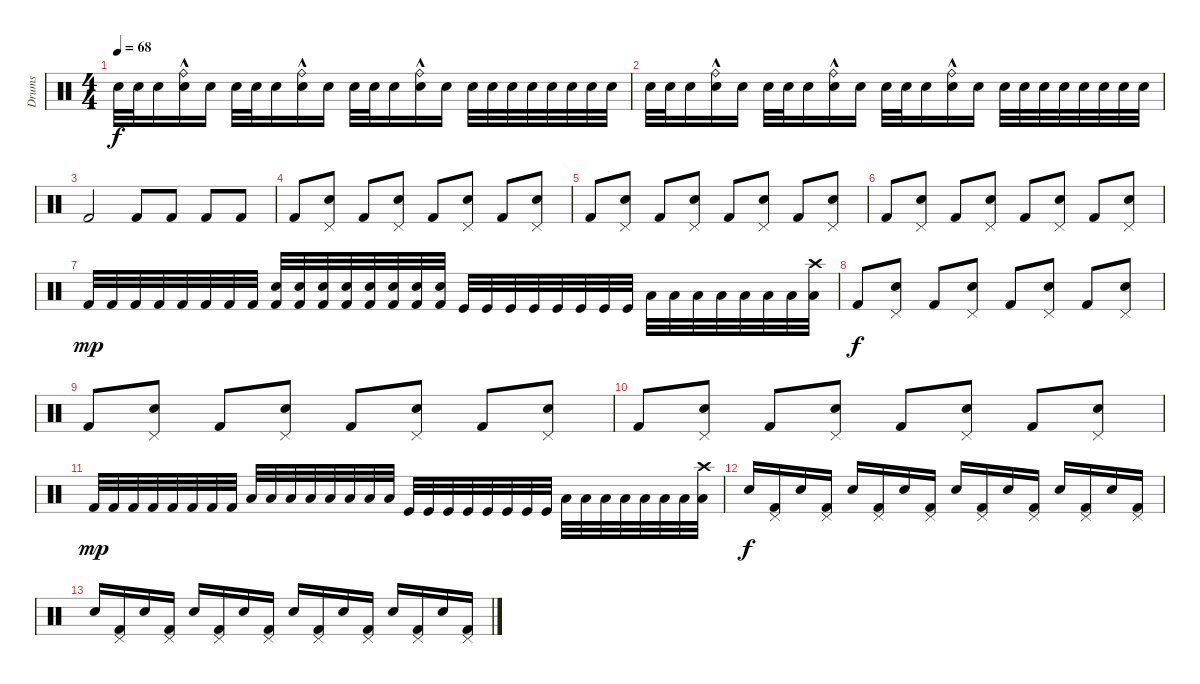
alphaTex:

\track ("Drums" "Drums") {instrument percussion}
\staff {score}
\articulation defaults
\ts (4 4)
\tempo 68
\clef neutral
\ks c "Electric Snare (hit)".32{dy f} "Electric Snare (hit)".32 "Electric Snare (hit)".16
("Electric Snare (hit)" "Ride (bell)"{hac}).16 "Electric Snare (hit)".16 "Electric Snare (hit)".32 "Electric Snare (hit)".32 "Electric Snare (hit)".16 ("Electric Snare (hit)" "Ride (bell)"{hac}).16 "Electric Snare (hit)".16 "Electric Snare (hit)".32 "Electric Snare (hit)".32 "Electric Snare (hit)".16 ("Electric Snare (hit)" "Ride (bell)"{hac}).16 "Electric Snare (hit)".16 "Electric Snare (hit)".32 "Electric Snare (hit)".32 "Electric Snare (hit)".32 "Electric Snare (hit)".32 "Electric Snare (hit)".32 "Electric Snare (hit)".32 "Electric Snare (hit)".32 "Electric Snare (hit)".32 |
"Electric Snare (hit)".32 "Electric Snare (hit)".32 "Electric Snare (hit)".16 ("Electric Snare (hit)" "Ride (bell)"{hac}).16 "Electric Snare (hit)".16 "Electric Snare (hit)".32 "Electric Snare (hit)".32 "Electric Snare (hit)".16 ("Electric Snare (hit)" "Ride (bell)"{hac}).16 "Electric Snare (hit)".16 "Electric Snare (hit)".32 "Electric Snare (hit)".32 "Electric Snare (hit)".16 ("Electric Snare (hit)" "Ride (bell)"{hac}).16 "Electric Snare (hit)".16 "Electric Snare (hit)".32 "Electric Snare (hit)".32 "Electric Snare (hit)".32 "Electric Snare (hit)".32 "Electric Snare (hit)".32 "Electric Snare (hit)".32 "Electric Snare (hit)".32 "Electric Snare (hit)".32 |
"Kick (hit) 2".2 "Kick (hit) 2".8 "Kick (hit) 2".8 "Kick (hit) 2".8 "Kick (hit) 2".8 |
"Kick (hit) 2".8 ("Snare (hit) 2" "Pedal Hi-Hat (hit)").8 "Kick (hit) 2".8 ("Snare (hit) 2" "Pedal Hi-Hat (hit)").8 "Kick (hit) 2".8 ("Snare (hit) 2" "Pedal Hi-Hat (hit)").8 "Kick (hit) 2".8 ("Snare (hit) 2" "Pedal Hi-Hat (hit)").8 |
"Kick (hit) 2".8 ("Snare (hit) 2" "Pedal Hi-Hat (hit)").8 "Kick (hit) 2".8 ("Snare (hit) 2" "Pedal Hi-Hat (hit)").8 "Kick (hit) 2".8 ("Snare (hit) 2" "Pedal Hi-Hat (hit)").8 "Kick (hit) 2".8 ("Snare (hit) 2" "Pedal Hi-Hat (hit)").8 |
"Kick (hit) 2".8 ("Snare (hit) 2" "Pedal Hi-Hat (hit)").8 "Kick (hit) 2".8 ("Snare (hit) 2" "Pedal Hi-Hat (hit)").8 "Kick (hit) 2".8 ("Snare (hit) 2" "Pedal Hi-Hat (hit)").8 "Kick (hit) 2".8 ("Snare (hit) 2" "Pedal Hi-Hat (hit)").8 |
"Kick (hit) 2".32{dy mp} "Kick (hit) 2".32 "Kick (hit) 2".32 "Kick (hit) 2".32 "Kick (hit) 2".32 "Kick (hit) 2".32 "Kick (hit) 2".32 "Kick (hit) 2".32 ("Snare (hit) 2" "Kick (hit) 2").32 ("Snare (hit) 2" "Kick (hit) 2").32 ("Snare (hit) 2" "Kick (hit) 2").32 ("Snare (hit) 2" "Kick (hit) 2").32 ("Snare (hit) 2" "Kick (hit) 2").32 ("Snare (hit) 2" "Kick (hit) 2").32 ("Snare (hit) 2" "Kick (hit) 2").32 ("Snare (hit) 2" "Kick (hit) 2").32 "Kick (hit)".32 "Kick (hit)".32 "Kick (hit)".32 "Kick (hit)".32 "Kick (hit)".32 "Kick (hit)".32 "Kick (hit)".32 "Kick (hit)".32 "Low Tom (hit)".32 "Low Tom (hit)".32 "Low Tom (hit)".32 "Low Tom (hit)".32 "Low Tom (hit)".32 "Low Tom (hit)".32 "Low Tom (hit)".32 ("Low Tom (hit)" "Crash high (hit)").32 |
"Kick (hit) 2".8{dy f} ("Snare (hit) 2" "Pedal Hi-Hat (hit)").8 "Kick (hit) 2".8 ("Snare (hit) 2" "Pedal Hi-Hat (hit)").8 "Kick (hit) 2".8 ("Snare (hit) 2" "Pedal Hi-Hat (hit)").8 "Kick (hit) 2".8 ("Snare (hit) 2" "Pedal Hi-Hat (hit)").8 |
"Kick (hit) 2".8 ("Snare (hit) 2" "Pedal Hi-Hat (hit)").8 "Kick (hit) 2".8 ("Snare (hit) 2" "Pedal Hi-Hat (hit)").8 "Kick (hit) 2".8 ("Snare (hit) 2" "Pedal Hi-Hat (hit)").8 "Kick (hit) 2".8 ("Snare (hit) 2" "Pedal Hi-Hat (hit)").8 |
"Kick (hit) 2".8 ("Snare (hit) 2" "Pedal Hi-Hat (hit)").8 "Kick (hit) 2".8 ("Snare (hit) 2" "Pedal Hi-Hat (hit)").8 "Kick (hit) 2".8 ("Snare (hit) 2" "Pedal Hi-Hat (hit)").8 "Kick (hit) 2".8 ("Snare (hit) 2" "Pedal Hi-Hat (hit)").8 |
"Kick (hit) 2".32{dy mp} "Kick (hit) 2".32 "Kick (hit) 2".32 "Kick (hit) 2".32 "Kick (hit) 2".32 "Kick (hit) 2".32 "Kick (hit) 2".32 "Kick (hit) 2".32 "Low Tom (hit)".32 "Low Tom (hit)".32 "Low Tom (hit)".32 "Low Tom (hit)".32 "Low Tom (hit)".32 "Low Tom (hit)".32 "Low Tom (hit)".32 "Low Tom (hit)".32 "Kick (hit)".32 "Kick (hit)".32 "Kick (hit)".32 "Kick (hit)".32 "Kick (hit)".32 "Kick (hit)".32 "Kick (hit)".32 "Kick (hit)".32 "Low Tom (hit)".32 "Low Tom (hit)".32 "Low Tom (hit)".32 "Low Tom (hit)".32 "Low Tom (hit)".32 "Low Tom (hit)".32 "Low Tom (hit)".32 ("Low Tom (hit)" "Crash high (hit)").32 |
"Snare (hit) 2".16{dy f} ("Pedal Hi-Hat (hit)" "Kick (hit) 2").16 "Snare (hit) 2".16 ("Pedal Hi-Hat (hit)" "Kick (hit) 2").16 "Snare (hit) 2".16 ("Pedal Hi-Hat (hit)" "Kick (hit) 2").16 "Snare (hit) 2".16 ("Pedal Hi-Hat (hit)" "Kick (hit) 2").16 "Snare (hit) 2".16 ("Pedal Hi-Hat (hit)" "Kick (hit) 2").16 "Snare (hit) 2".16 ("Pedal Hi-Hat (hit)" "Kick (hit) 2").16 "Snare (hit) 2".16 ("Pedal Hi-Hat (hit)" "Kick (hit) 2").16 "Snare (hit) 2".16 ("Pedal Hi-Hat (hit)" "Kick (hit) 2").16 |
"Snare (hit) 2".16 ("Pedal Hi-Hat (hit)" "Kick (hit) 2").16 "Snare (hit) 2".16 ("Pedal Hi-Hat (hit)" "Kick (hit) 2").16 "Snare (hit) 2".16 ("Pedal Hi-Hat (hit)" "Kick (hit) 2").16 "Snare (hit) 2".16 ("Pedal Hi-Hat (hit)" "Kick (hit) 2").16 "Snare (hit) 2".16 ("Pedal Hi-Hat (hit)" "Kick (hit) 2").16 "Snare (hit) 2".16 ("Pedal Hi-Hat (hit)" "Kick (hit) 2").16 "Snare (hit) 2".16 ("Pedal Hi-Hat (hit)" "Kick (hit) 2").16 "Snare (hit) 2".16 ("Pedal Hi-Hat (hit)" "Kick (hit) 2").16
